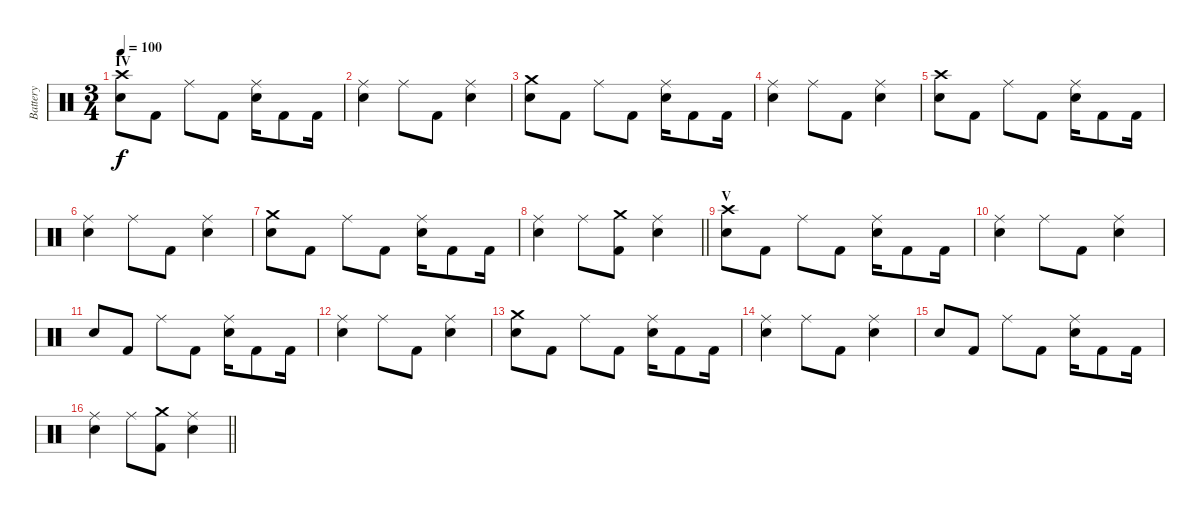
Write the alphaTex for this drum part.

\track ("Battery" "Battery") {instrument percussion}
\staff {score}
\articulation defaults
\ts (3 4)
\section ("" "IV")
\tempo 100
\clef neutral
\ks c
("Crash high (hit)" "Electric Snare (hit)").8{dy f} "Kick (hit) 2".8 "Ride (middle)".8 "Kick (hit) 2".8 ("Ride (middle)" "Electric Snare (hit)").16 "Kick (hit) 2".8 "Kick (hit) 2".16 |
("Ride (middle)" "Electric Snare (hit)").4 "Ride (middle)".8 "Kick (hit) 2".8 ("Ride (middle)" "Electric Snare (hit)").4 |
("Crash medium (hit)" "Electric Snare (hit)").8 "Kick (hit) 2".8 "Ride (middle)".8 "Kick (hit) 2".8 ("Ride (middle)" "Electric Snare (hit)").16 "Kick (hit) 2".8 "Kick (hit) 2".16 |
("Ride (middle)" "Electric Snare (hit)").4 "Ride (middle)".8 "Kick (hit) 2".8 ("Ride (middle)" "Electric Snare (hit)").4 |
("Crash high (hit)" "Electric Snare (hit)").8 "Kick (hit) 2".8 "Ride (middle)".8 "Kick (hit) 2".8 ("Ride (middle)" "Electric Snare (hit)").16 "Kick (hit) 2".8 "Kick (hit) 2".16 |
("Ride (middle)" "Electric Snare (hit)").4 "Ride (middle)".8 "Kick (hit) 2".8 ("Ride (middle)" "Electric Snare (hit)").4 |
("Crash medium (hit)" "Electric Snare (hit)").8 "Kick (hit) 2".8 "Ride (middle)".8 "Kick (hit) 2".8 ("Ride (middle)" "Electric Snare (hit)").16 "Kick (hit) 2".8 "Kick (hit) 2".16 |
\barLineRight lightlight
("Ride (middle)" "Electric Snare (hit)").4 "Ride (middle)".8 ("Crash medium (hit)" "Kick (hit) 2").8 ("Ride (middle)" "Electric Snare (hit)").4 |
\section ("" "V")
("Crash high (hit)" "Electric Snare (hit)").8 "Kick (hit) 2".8 "Ride (middle)".8 "Kick (hit) 2".8 ("Ride (middle)" "Electric Snare (hit)").16 "Kick (hit) 2".8 "Kick (hit) 2".16 |
("Ride (middle)" "Electric Snare (hit)").4 "Ride (middle)".8 "Kick (hit) 2".8 ("Ride (middle)" "Electric Snare (hit)").4 |
"Electric Snare (hit)".8 "Kick (hit) 2".8 "Ride (middle)".8 "Kick (hit) 2".8 ("Ride (middle)" "Electric Snare (hit)").16 "Kick (hit) 2".8 "Kick (hit) 2".16 |
("Ride (middle)" "Electric Snare (hit)").4 "Ride (middle)".8 "Kick (hit) 2".8 ("Ride (middle)" "Electric Snare (hit)").4 |
("Crash medium (hit)" "Electric Snare (hit)").8 "Kick (hit) 2".8 "Ride (middle)".8 "Kick (hit) 2".8 ("Ride (middle)" "Electric Snare (hit)").16 "Kick (hit) 2".8 "Kick (hit) 2".16 |
("Ride (middle)" "Electric Snare (hit)").4 "Ride (middle)".8 "Kick (hit) 2".8 ("Ride (middle)" "Electric Snare (hit)").4 |
"Electric Snare (hit)".8 "Kick (hit) 2".8 "Ride (middle)".8 "Kick (hit) 2".8 ("Ride (middle)" "Electric Snare (hit)").16 "Kick (hit) 2".8 "Kick (hit) 2".16 |
\barLineRight lightlight
("Ride (middle)" "Electric Snare (hit)").4 "Ride (middle)".8 ("Crash medium (hit)" "Kick (hit) 2").8 ("Ride (middle)" "Electric Snare (hit)").4
